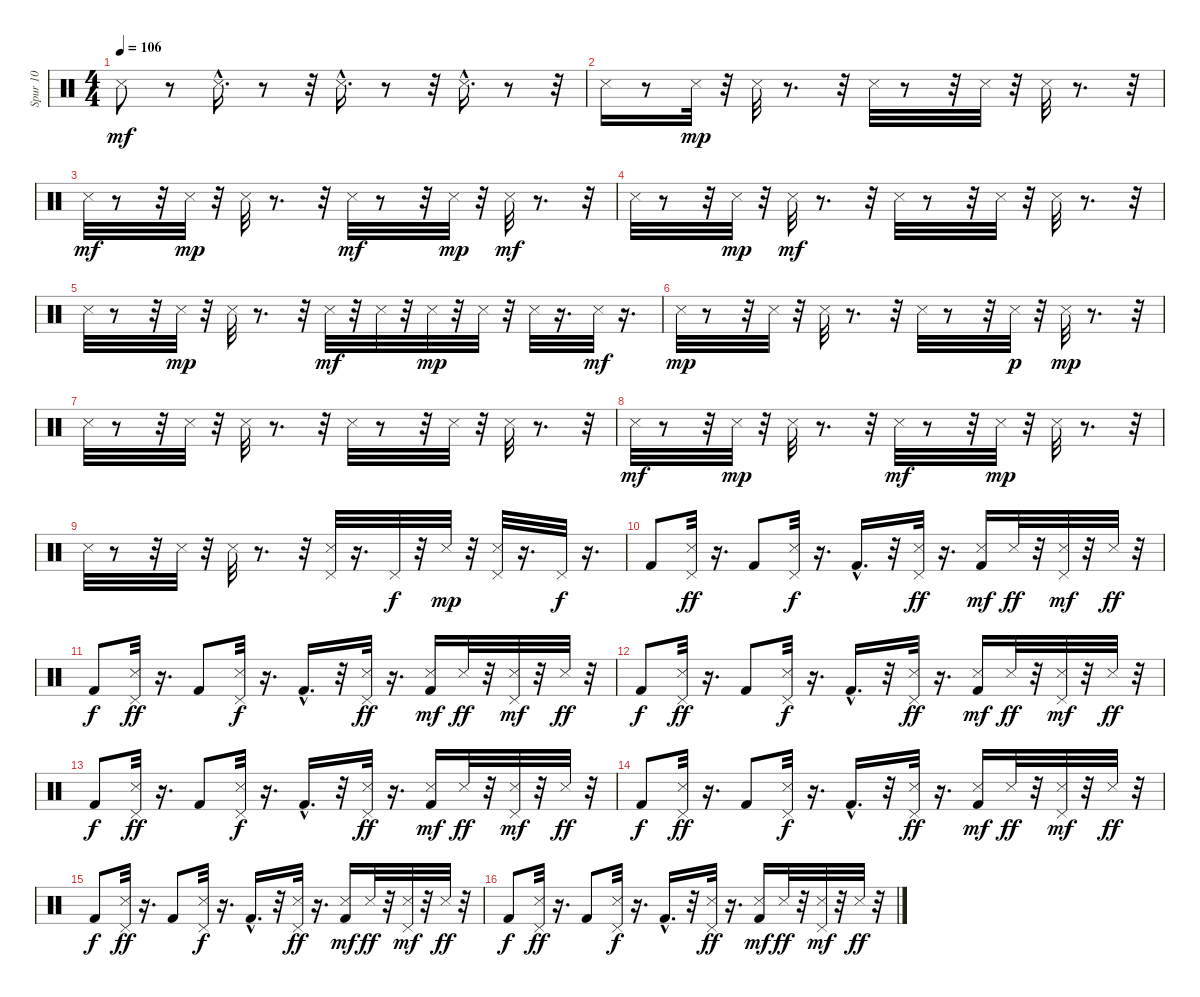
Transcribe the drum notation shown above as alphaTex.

\track ("Spur 10" "Spur 10") {instrument percussion}
\staff {score}
\articulation defaults
\ts (4 4)
\tempo 106
\clef neutral
\ks c "Snare (side stick) 3".8{dy mf}
r.8 "Snare (side stick) 3"{hac}.16{d} r.8 r.32 "Snare (side stick) 3"{hac}.16{d} r.8 r.32 "Snare (side stick) 3"{hac}.16{d} r.8 r.32 |
"Snare (side stick) 3".16 r.8 "Snare (side stick) 3".32{dy mp} r.32 "Snare (side stick) 3".32 r.8{d} r.32 "Snare (side stick) 3".32 r.8 r.32 "Snare (side stick) 3".32 r.32 "Snare (side stick) 3".32 r.8{d} r.32 |
"Snare (side stick) 3".32{dy mf} r.8 r.32 "Snare (side stick) 3".32{dy mp} r.32 "Snare (side stick) 3".32 r.8{d} r.32 "Snare (side stick) 3".32{dy mf} r.8 r.32 "Snare (side stick) 3".32{dy mp} r.32 "Snare (side stick) 3".32{dy mf} r.8{d} r.32 |
"Snare (side stick) 3".32 r.8 r.32 "Snare (side stick) 3".32{dy mp} r.32 "Snare (side stick) 3".32{dy mf} r.8{d} r.32 "Snare (side stick) 3".32 r.8 r.32 "Snare (side stick) 3".32 r.32 "Snare (side stick) 3".32 r.8{d} r.32 |
"Snare (side stick) 3".32 r.8 r.32 "Snare (side stick) 3".32{dy mp} r.32 "Snare (side stick) 3".32 r.8{d} r.32 "Snare (side stick) 3".32{dy mf} r.32 "Snare (side stick) 3".32 r.32 "Snare (side stick) 3".32{dy mp} r.32 "Snare (side stick) 3".32 r.32 "Snare (side stick) 3".32 r.16{d} "Snare (side stick) 3".32{dy mf} r.16{d} |
"Snare (side stick) 3".32{dy mp} r.8 r.32 "Snare (side stick) 3".32 r.32 "Snare (side stick) 3".32 r.8{d} r.32 "Snare (side stick) 3".32 r.8 r.32 "Snare (side stick) 3".32{dy p} r.32 "Snare (side stick) 3".32{dy mp} r.8{d} r.32 |
"Snare (side stick) 3".32 r.8 r.32 "Snare (side stick) 3".32 r.32 "Snare (side stick) 3".32 r.8{d} r.32 "Snare (side stick) 3".32 r.8 r.32 "Snare (side stick) 3".32 r.32 "Snare (side stick) 3".32 r.8{d} r.32 |
"Snare (side stick) 3".32{dy mf} r.8 r.32 "Snare (side stick) 3".32{dy mp} r.32 "Snare (side stick) 3".32 r.8{d} r.32 "Snare (side stick) 3".32{dy mf} r.8 r.32 "Snare (side stick) 3".32{dy mp} r.32 "Snare (side stick) 3".32 r.8{d} r.32 |
"Snare (side stick) 3".32 r.8 r.32 "Snare (side stick) 3".32 r.32 "Snare (side stick) 3".32 r.8{d} r.32 ("Snare (side stick) 3" "Pedal Hi-Hat (hit)").32 r.16{d} "Pedal Hi-Hat (hit)".32{dy f} r.32 "Snare (side stick) 3".32{dy mp} r.32 ("Snare (side stick) 3" "Pedal Hi-Hat (hit)").32 r.16{d} "Pedal Hi-Hat (hit)".32{dy f} r.16{d} |
"Kick (hit) 2".8 ("Pedal Hi-Hat (hit)" "Snare (side stick) 3").32{dy ff} r.16{d} "Kick (hit) 2".8 ("Pedal Hi-Hat (hit)" "Snare (side stick) 3").32{dy f} r.16{d} "Kick (hit) 2"{hac}.16{d} r.32 ("Pedal Hi-Hat (hit)" "Snare (side stick) 3").32{dy ff} r.16{d} ("Kick (hit) 2" "Snare (side stick) 3").16{dy mf} "Snare (side stick) 3".32{dy ff} r.32 ("Pedal Hi-Hat (hit)" "Snare (side stick) 3").32{dy mf} r.32 "Snare (side stick) 3".32{dy ff} r.32 |
"Kick (hit) 2".8{dy f} ("Pedal Hi-Hat (hit)" "Snare (side stick) 3").32{dy ff} r.16{d} "Kick (hit) 2".8 ("Pedal Hi-Hat (hit)" "Snare (side stick) 3").32{dy f} r.16{d} "Kick (hit) 2"{hac}.16{d} r.32 ("Pedal Hi-Hat (hit)" "Snare (side stick) 3").32{dy ff} r.16{d} ("Kick (hit) 2" "Snare (side stick) 3").16{dy mf} "Snare (side stick) 3".32{dy ff} r.32 ("Pedal Hi-Hat (hit)" "Snare (side stick) 3").32{dy mf} r.32 "Snare (side stick) 3".32{dy ff} r.32 |
"Kick (hit) 2".8{dy f} ("Pedal Hi-Hat (hit)" "Snare (side stick) 3").32{dy ff} r.16{d} "Kick (hit) 2".8 ("Pedal Hi-Hat (hit)" "Snare (side stick) 3").32{dy f} r.16{d} "Kick (hit) 2"{hac}.16{d} r.32 ("Pedal Hi-Hat (hit)" "Snare (side stick) 3").32{dy ff} r.16{d} ("Kick (hit) 2" "Snare (side stick) 3").16{dy mf} "Snare (side stick) 3".32{dy ff} r.32 ("Pedal Hi-Hat (hit)" "Snare (side stick) 3").32{dy mf} r.32 "Snare (side stick) 3".32{dy ff} r.32 |
"Kick (hit) 2".8{dy f} ("Pedal Hi-Hat (hit)" "Snare (side stick) 3").32{dy ff} r.16{d} "Kick (hit) 2".8 ("Pedal Hi-Hat (hit)" "Snare (side stick) 3").32{dy f} r.16{d} "Kick (hit) 2"{hac}.16{d} r.32 ("Pedal Hi-Hat (hit)" "Snare (side stick) 3").32{dy ff} r.16{d} ("Kick (hit) 2" "Snare (side stick) 3").16{dy mf} "Snare (side stick) 3".32{dy ff} r.32 ("Pedal Hi-Hat (hit)" "Snare (side stick) 3").32{dy mf} r.32 "Snare (side stick) 3".32{dy ff} r.32 |
"Kick (hit) 2".8{dy f} ("Pedal Hi-Hat (hit)" "Snare (side stick) 3").32{dy ff} r.16{d} "Kick (hit) 2".8 ("Pedal Hi-Hat (hit)" "Snare (side stick) 3").32{dy f} r.16{d} "Kick (hit) 2"{hac}.16{d} r.32 ("Pedal Hi-Hat (hit)" "Snare (side stick) 3").32{dy ff} r.16{d} ("Kick (hit) 2" "Snare (side stick) 3").16{dy mf} "Snare (side stick) 3".32{dy ff} r.32 ("Pedal Hi-Hat (hit)" "Snare (side stick) 3").32{dy mf} r.32 "Snare (side stick) 3".32{dy ff} r.32 |
"Kick (hit) 2".8{dy f} ("Pedal Hi-Hat (hit)" "Snare (side stick) 3").32{dy ff} r.16{d} "Kick (hit) 2".8 ("Pedal Hi-Hat (hit)" "Snare (side stick) 3").32{dy f} r.16{d} "Kick (hit) 2"{hac}.16{d} r.32 ("Pedal Hi-Hat (hit)" "Snare (side stick) 3").32{dy ff} r.16{d} ("Kick (hit) 2" "Snare (side stick) 3").16{dy mf} "Snare (side stick) 3".32{dy ff} r.32 ("Pedal Hi-Hat (hit)" "Snare (side stick) 3").32{dy mf} r.32 "Snare (side stick) 3".32{dy ff} r.32 |
"Kick (hit) 2".8{dy f} ("Pedal Hi-Hat (hit)" "Snare (side stick) 3").32{dy ff} r.16{d} "Kick (hit) 2".8 ("Pedal Hi-Hat (hit)" "Snare (side stick) 3").32{dy f} r.16{d} "Kick (hit) 2"{hac}.16{d} r.32 ("Pedal Hi-Hat (hit)" "Snare (side stick) 3").32{dy ff} r.16{d} ("Kick (hit) 2" "Snare (side stick) 3").16{dy mf} "Snare (side stick) 3".32{dy ff} r.32 ("Pedal Hi-Hat (hit)" "Snare (side stick) 3").32{dy mf} r.32 "Snare (side stick) 3".32{dy ff} r.32
